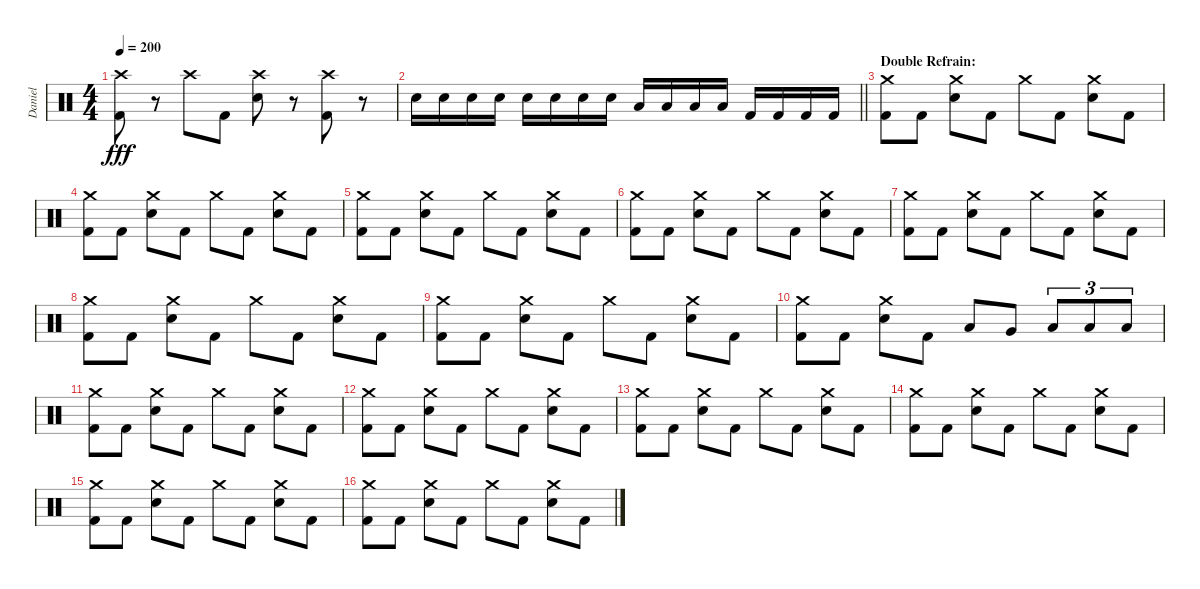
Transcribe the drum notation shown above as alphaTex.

\track ("Daniel" "Daniel") {instrument percussion}
\staff {score}
\articulation defaults
\ts (4 4)
\tempo 200
\clef neutral
\ks c
("Crash high (hit)" "Kick (hit) 2").8{dy fff} r.8 "Crash high (hit)".8 "Kick (hit) 2".8 ("Crash high (hit)" "Electric Snare (hit)").8 r.8 ("Crash high (hit)" "Kick (hit) 2").8 r.8 |
\barLineRight lightlight "Electric Snare (hit)".16 "Electric Snare (hit)".16 "Electric Snare (hit)".16 "Electric Snare (hit)".16 "Electric Snare (hit)".16 "Electric Snare (hit)".16 "Electric Snare (hit)".16 "Electric Snare (hit)".16 "Low Floor Tom (hit)".16 "Low Floor Tom (hit)".16 "Low Floor Tom (hit)".16 "Low Floor Tom (hit)".16 "Kick (hit) 2".16 "Kick (hit) 2".16 "Kick (hit) 2".16 "Kick (hit) 2".16
|
\section ("" "Double Refrain:")
("Crash medium (hit)" "Kick (hit) 2").8 "Kick (hit) 2".8 ("Crash medium (hit)" "Electric Snare (hit)").8 "Kick (hit) 2".8 "Crash medium (hit)".8 "Kick (hit) 2".8 ("Crash medium (hit)" "Electric Snare (hit)").8 "Kick (hit) 2".8 |
("Crash medium (hit)" "Kick (hit) 2").8 "Kick (hit) 2".8 ("Crash medium (hit)" "Electric Snare (hit)").8 "Kick (hit) 2".8 "Crash medium (hit)".8 "Kick (hit) 2".8 ("Crash medium (hit)" "Electric Snare (hit)").8 "Kick (hit) 2".8 |
("Crash medium (hit)" "Kick (hit) 2").8 "Kick (hit) 2".8 ("Crash medium (hit)" "Electric Snare (hit)").8 "Kick (hit) 2".8 "Crash medium (hit)".8 "Kick (hit) 2".8 ("Crash medium (hit)" "Electric Snare (hit)").8 "Kick (hit) 2".8 |
("Crash medium (hit)" "Kick (hit) 2").8 "Kick (hit) 2".8 ("Crash medium (hit)" "Electric Snare (hit)").8 "Kick (hit) 2".8 "Crash medium (hit)".8 "Kick (hit) 2".8 ("Crash medium (hit)" "Electric Snare (hit)").8 "Kick (hit) 2".8 |
("Crash medium (hit)" "Kick (hit) 2").8 "Kick (hit) 2".8 ("Crash medium (hit)" "Electric Snare (hit)").8 "Kick (hit) 2".8 "Crash medium (hit)".8 "Kick (hit) 2".8 ("Crash medium (hit)" "Electric Snare (hit)").8 "Kick (hit) 2".8 |
("Crash medium (hit)" "Kick (hit) 2").8 "Kick (hit) 2".8 ("Crash medium (hit)" "Electric Snare (hit)").8 "Kick (hit) 2".8 "Crash medium (hit)".8 "Kick (hit) 2".8 ("Crash medium (hit)" "Electric Snare (hit)").8 "Kick (hit) 2".8 |
("Crash medium (hit)" "Kick (hit) 2").8 "Kick (hit) 2".8 ("Crash medium (hit)" "Electric Snare (hit)").8 "Kick (hit) 2".8 "Crash medium (hit)".8 "Kick (hit) 2".8 ("Crash medium (hit)" "Electric Snare (hit)").8 "Kick (hit) 2".8 |
("Crash medium (hit)" "Kick (hit) 2").8 "Kick (hit) 2".8 ("Crash medium (hit)" "Electric Snare (hit)").8 "Kick (hit) 2".8 "Low Tom (hit)".8 "Very Low Tom (hit)".8 "Low Floor Tom (hit)".8{tu (3 2)} "Low Floor Tom (hit)".8{tu (3 2)} "Low Floor Tom (hit)".8{tu (3 2)} |
("Crash medium (hit)" "Kick (hit) 2").8 "Kick (hit) 2".8 ("Crash medium (hit)" "Electric Snare (hit)").8 "Kick (hit) 2".8 "Crash medium (hit)".8 "Kick (hit) 2".8 ("Crash medium (hit)" "Electric Snare (hit)").8 "Kick (hit) 2".8 |
("Crash medium (hit)" "Kick (hit) 2").8 "Kick (hit) 2".8 ("Crash medium (hit)" "Electric Snare (hit)").8 "Kick (hit) 2".8 "Crash medium (hit)".8 "Kick (hit) 2".8 ("Crash medium (hit)" "Electric Snare (hit)").8 "Kick (hit) 2".8 |
("Crash medium (hit)" "Kick (hit) 2").8 "Kick (hit) 2".8 ("Crash medium (hit)" "Electric Snare (hit)").8 "Kick (hit) 2".8 "Crash medium (hit)".8 "Kick (hit) 2".8 ("Crash medium (hit)" "Electric Snare (hit)").8 "Kick (hit) 2".8 |
("Crash medium (hit)" "Kick (hit) 2").8 "Kick (hit) 2".8 ("Crash medium (hit)" "Electric Snare (hit)").8 "Kick (hit) 2".8 "Crash medium (hit)".8 "Kick (hit) 2".8 ("Crash medium (hit)" "Electric Snare (hit)").8 "Kick (hit) 2".8 |
("Crash medium (hit)" "Kick (hit) 2").8 "Kick (hit) 2".8 ("Crash medium (hit)" "Electric Snare (hit)").8 "Kick (hit) 2".8 "Crash medium (hit)".8 "Kick (hit) 2".8 ("Crash medium (hit)" "Electric Snare (hit)").8 "Kick (hit) 2".8 |
("Crash medium (hit)" "Kick (hit) 2").8 "Kick (hit) 2".8 ("Crash medium (hit)" "Electric Snare (hit)").8 "Kick (hit) 2".8 "Crash medium (hit)".8 "Kick (hit) 2".8 ("Crash medium (hit)" "Electric Snare (hit)").8 "Kick (hit) 2".8
